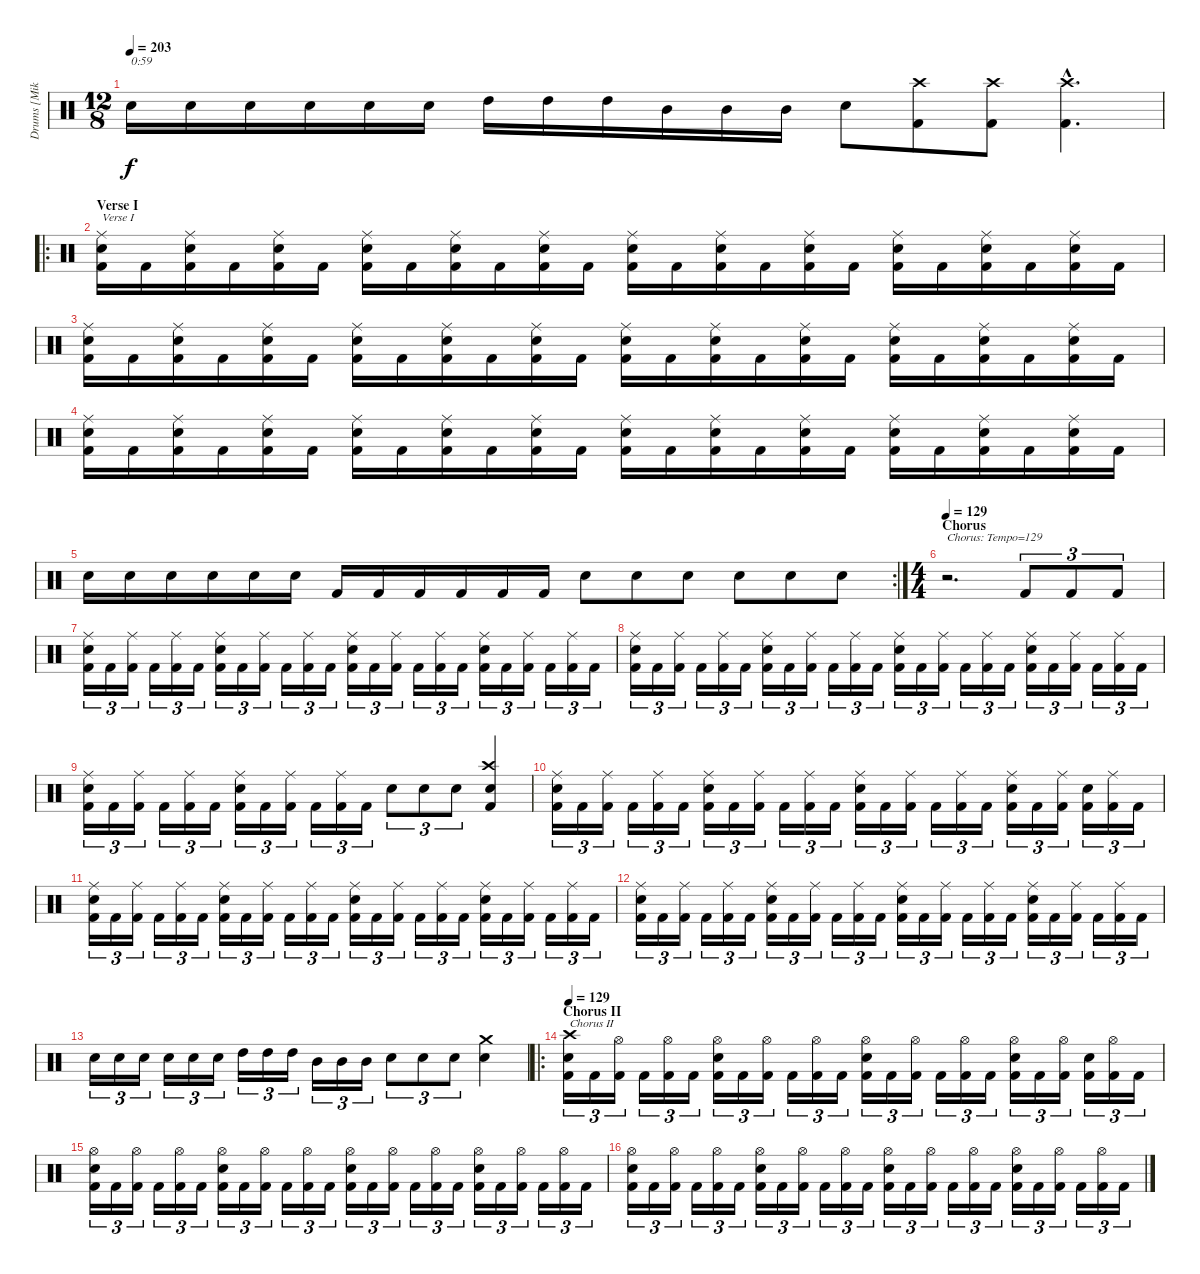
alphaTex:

\track ("Drums [Mike Smith]" "Drums [Mik") {instrument percussion}
\staff {score}
\articulation defaults
\ts (12 8)
\tempo 203
\clef neutral
\ks c "Electric Snare (hit)".16{txt "0:59" dy f} "Electric Snare (hit)".16 "Electric Snare (hit)".16 "Electric Snare (hit)".16 "Electric Snare (hit)".16 "Electric Snare (hit)".16 "High Tom (hit)".16 "High Tom (hit)".16 "High Tom (hit)".16 "Mid Tom (hit)".16 "Mid Tom (hit)".16 "Mid Tom (hit)".16 "Electric Snare (hit)".8
("Crash high (hit)" "Kick (hit) 2").8 ("Crash high (hit)" "Kick (hit) 2").8 ("Crash high (hit)"{hac} "Kick (hit) 2"{hac}).4{d} |
\ro
\section ("" "Verse I")
("Ride (middle)" "Electric Snare (hit)" "Kick (hit) 2").16{txt "Verse I"} "Kick (hit) 2".16 ("Ride (middle)" "Electric Snare (hit)" "Kick (hit) 2").16 "Kick (hit) 2".16 ("Ride (middle)" "Electric Snare (hit)" "Kick (hit) 2").16 "Kick (hit) 2".16 ("Ride (middle)" "Electric Snare (hit)" "Kick (hit) 2").16 "Kick (hit) 2".16 ("Ride (middle)" "Electric Snare (hit)" "Kick (hit) 2").16 "Kick (hit) 2".16 ("Ride (middle)" "Electric Snare (hit)" "Kick (hit) 2").16 "Kick (hit) 2".16 ("Ride (middle)" "Electric Snare (hit)" "Kick (hit) 2").16 "Kick (hit) 2".16 ("Ride (middle)" "Electric Snare (hit)" "Kick (hit) 2").16 "Kick (hit) 2".16 ("Ride (middle)" "Electric Snare (hit)" "Kick (hit) 2").16 "Kick (hit) 2".16 ("Ride (middle)" "Electric Snare (hit)" "Kick (hit) 2").16 "Kick (hit) 2".16 ("Ride (middle)" "Electric Snare (hit)" "Kick (hit) 2").16 "Kick (hit) 2".16 ("Ride (middle)" "Electric Snare (hit)" "Kick (hit) 2").16 "Kick (hit) 2".16 |
("Ride (middle)" "Electric Snare (hit)" "Kick (hit) 2").16 "Kick (hit) 2".16 ("Ride (middle)" "Electric Snare (hit)" "Kick (hit) 2").16 "Kick (hit) 2".16 ("Ride (middle)" "Electric Snare (hit)" "Kick (hit) 2").16 "Kick (hit) 2".16 ("Ride (middle)" "Electric Snare (hit)" "Kick (hit) 2").16 "Kick (hit) 2".16 ("Ride (middle)" "Electric Snare (hit)" "Kick (hit) 2").16 "Kick (hit) 2".16 ("Ride (middle)" "Electric Snare (hit)" "Kick (hit) 2").16 "Kick (hit) 2".16 ("Ride (middle)" "Electric Snare (hit)" "Kick (hit) 2").16 "Kick (hit) 2".16 ("Ride (middle)" "Electric Snare (hit)" "Kick (hit) 2").16 "Kick (hit) 2".16 ("Ride (middle)" "Electric Snare (hit)" "Kick (hit) 2").16 "Kick (hit) 2".16 ("Ride (middle)" "Electric Snare (hit)" "Kick (hit) 2").16 "Kick (hit) 2".16 ("Ride (middle)" "Electric Snare (hit)" "Kick (hit) 2").16 "Kick (hit) 2".16 ("Ride (middle)" "Electric Snare (hit)" "Kick (hit) 2").16 "Kick (hit) 2".16 |
("Ride (middle)" "Electric Snare (hit)" "Kick (hit) 2").16 "Kick (hit) 2".16 ("Ride (middle)" "Electric Snare (hit)" "Kick (hit) 2").16 "Kick (hit) 2".16 ("Ride (middle)" "Electric Snare (hit)" "Kick (hit) 2").16 "Kick (hit) 2".16 ("Ride (middle)" "Electric Snare (hit)" "Kick (hit) 2").16 "Kick (hit) 2".16 ("Ride (middle)" "Electric Snare (hit)" "Kick (hit) 2").16 "Kick (hit) 2".16 ("Ride (middle)" "Electric Snare (hit)" "Kick (hit) 2").16 "Kick (hit) 2".16 ("Ride (middle)" "Electric Snare (hit)" "Kick (hit) 2").16 "Kick (hit) 2".16 ("Ride (middle)" "Electric Snare (hit)" "Kick (hit) 2").16 "Kick (hit) 2".16 ("Ride (middle)" "Electric Snare (hit)" "Kick (hit) 2").16 "Kick (hit) 2".16 ("Ride (middle)" "Electric Snare (hit)" "Kick (hit) 2").16 "Kick (hit) 2".16 ("Ride (middle)" "Electric Snare (hit)" "Kick (hit) 2").16 "Kick (hit) 2".16 ("Ride (middle)" "Electric Snare (hit)" "Kick (hit) 2").16 "Kick (hit) 2".16 |
\rc 2 "Electric Snare (hit)".16 "Electric Snare (hit)".16 "Electric Snare (hit)".16 "Electric Snare (hit)".16 "Electric Snare (hit)".16 "Electric Snare (hit)".16 "Kick (hit) 2".16 "Kick (hit) 2".16 "Kick (hit) 2".16 "Kick (hit) 2".16 "Kick (hit) 2".16 "Kick (hit) 2".16 "Electric Snare (hit)".8 "Electric Snare (hit)".8 "Electric Snare (hit)".8 "Electric Snare (hit)".8 "Electric Snare (hit)".8 "Electric Snare (hit)".8
|
\ts (4 4)
\section ("" "Chorus")
\tempo 129
r.2{d txt "Chorus: Tempo=129"} "Kick (hit) 2".8{tu (3 2)} "Kick (hit) 2".8{tu (3 2)} "Kick (hit) 2".8{tu (3 2)} |
("Ride (middle)" "Electric Snare (hit)" "Kick (hit) 2").16{tu (3 2)} "Kick (hit) 2".16{tu (3 2)} ("Ride (middle)" "Kick (hit) 2").16{tu (3 2)} "Kick (hit) 2".16{tu (3 2)} ("Ride (middle)" "Kick (hit) 2").16{tu (3 2)} "Kick (hit) 2".16{tu (3 2)} ("Ride (middle)" "Electric Snare (hit)" "Kick (hit) 2").16{tu (3 2)} "Kick (hit) 2".16{tu (3 2)} ("Ride (middle)" "Kick (hit) 2").16{tu (3 2)} "Kick (hit) 2".16{tu (3 2)} ("Ride (middle)" "Kick (hit) 2").16{tu (3 2)} "Kick (hit) 2".16{tu (3 2)} ("Ride (middle)" "Electric Snare (hit)" "Kick (hit) 2").16{tu (3 2)} "Kick (hit) 2".16{tu (3 2)} ("Ride (middle)" "Kick (hit) 2").16{tu (3 2)} "Kick (hit) 2".16{tu (3 2)} ("Ride (middle)" "Kick (hit) 2").16{tu (3 2)} "Kick (hit) 2".16{tu (3 2)} ("Ride (middle)" "Electric Snare (hit)" "Kick (hit) 2").16{tu (3 2)} "Kick (hit) 2".16{tu (3 2)} ("Ride (middle)" "Kick (hit) 2").16{tu (3 2)} "Kick (hit) 2".16{tu (3 2)} ("Ride (middle)" "Kick (hit) 2").16{tu (3 2)} "Kick (hit) 2".16{tu (3 2)} |
("Ride (middle)" "Electric Snare (hit)" "Kick (hit) 2").16{tu (3 2)} "Kick (hit) 2".16{tu (3 2)} ("Ride (middle)" "Kick (hit) 2").16{tu (3 2)} "Kick (hit) 2".16{tu (3 2)} ("Ride (middle)" "Kick (hit) 2").16{tu (3 2)} "Kick (hit) 2".16{tu (3 2)} ("Ride (middle)" "Electric Snare (hit)" "Kick (hit) 2").16{tu (3 2)} "Kick (hit) 2".16{tu (3 2)} ("Ride (middle)" "Kick (hit) 2").16{tu (3 2)} "Kick (hit) 2".16{tu (3 2)} ("Ride (middle)" "Kick (hit) 2").16{tu (3 2)} "Kick (hit) 2".16{tu (3 2)} ("Ride (middle)" "Electric Snare (hit)" "Kick (hit) 2").16{tu (3 2)} "Kick (hit) 2".16{tu (3 2)} ("Ride (middle)" "Kick (hit) 2").16{tu (3 2)} "Kick (hit) 2".16{tu (3 2)} ("Ride (middle)" "Kick (hit) 2").16{tu (3 2)} "Kick (hit) 2".16{tu (3 2)} ("Ride (middle)" "Electric Snare (hit)" "Kick (hit) 2").16{tu (3 2)} "Kick (hit) 2".16{tu (3 2)} ("Ride (middle)" "Kick (hit) 2").16{tu (3 2)} "Kick (hit) 2".16{tu (3 2)} ("Ride (middle)" "Kick (hit) 2").16{tu (3 2)} "Kick (hit) 2".16{tu (3 2)} |
("Ride (middle)" "Electric Snare (hit)" "Kick (hit) 2").16{tu (3 2)} "Kick (hit) 2".16{tu (3 2)} ("Ride (middle)" "Kick (hit) 2").16{tu (3 2)} "Kick (hit) 2".16{tu (3 2)} ("Ride (middle)" "Kick (hit) 2").16{tu (3 2)} "Kick (hit) 2".16{tu (3 2)} ("Ride (middle)" "Electric Snare (hit)" "Kick (hit) 2").16{tu (3 2)} "Kick (hit) 2".16{tu (3 2)} ("Ride (middle)" "Kick (hit) 2").16{tu (3 2)} "Kick (hit) 2".16{tu (3 2)} ("Ride (middle)" "Kick (hit) 2").16{tu (3 2)} "Kick (hit) 2".16{tu (3 2)} "Electric Snare (hit)".8{tu (3 2)} "Electric Snare (hit)".8{tu (3 2)} "Electric Snare (hit)".8{tu (3 2)} ("Crash high (hit)" "Electric Snare (hit)" "Kick (hit) 2").4 |
("Ride (middle)" "Electric Snare (hit)" "Kick (hit) 2").16{tu (3 2)} "Kick (hit) 2".16{tu (3 2)} ("Ride (middle)" "Kick (hit) 2").16{tu (3 2)} "Kick (hit) 2".16{tu (3 2)} ("Ride (middle)" "Kick (hit) 2").16{tu (3 2)} "Kick (hit) 2".16{tu (3 2)} ("Ride (middle)" "Electric Snare (hit)" "Kick (hit) 2").16{tu (3 2)} "Kick (hit) 2".16{tu (3 2)} ("Ride (middle)" "Kick (hit) 2").16{tu (3 2)} "Kick (hit) 2".16{tu (3 2)} ("Ride (middle)" "Kick (hit) 2").16{tu (3 2)} "Kick (hit) 2".16{tu (3 2)} ("Ride (middle)" "Electric Snare (hit)" "Kick (hit) 2").16{tu (3 2)} "Kick (hit) 2".16{tu (3 2)} ("Ride (middle)" "Kick (hit) 2").16{tu (3 2)} "Kick (hit) 2".16{tu (3 2)} ("Ride (middle)" "Kick (hit) 2").16{tu (3 2)} "Kick (hit) 2".16{tu (3 2)} ("Ride (middle)" "Electric Snare (hit)" "Kick (hit) 2").16{tu (3 2)} "Kick (hit) 2".16{tu (3 2)} ("Ride (middle)" "Kick (hit) 2").16{tu (3 2)} ("Electric Snare (hit)" "Kick (hit) 2").16{tu (3 2)} ("Ride (middle)" "Kick (hit) 2").16{tu (3 2)} "Kick (hit) 2".16{tu (3 2)} |
("Ride (middle)" "Electric Snare (hit)" "Kick (hit) 2").16{tu (3 2)} "Kick (hit) 2".16{tu (3 2)} ("Ride (middle)" "Kick (hit) 2").16{tu (3 2)} "Kick (hit) 2".16{tu (3 2)} ("Ride (middle)" "Kick (hit) 2").16{tu (3 2)} "Kick (hit) 2".16{tu (3 2)} ("Ride (middle)" "Electric Snare (hit)" "Kick (hit) 2").16{tu (3 2)} "Kick (hit) 2".16{tu (3 2)} ("Ride (middle)" "Kick (hit) 2").16{tu (3 2)} "Kick (hit) 2".16{tu (3 2)} ("Ride (middle)" "Kick (hit) 2").16{tu (3 2)} "Kick (hit) 2".16{tu (3 2)} ("Ride (middle)" "Electric Snare (hit)" "Kick (hit) 2").16{tu (3 2)} "Kick (hit) 2".16{tu (3 2)} ("Ride (middle)" "Kick (hit) 2").16{tu (3 2)} "Kick (hit) 2".16{tu (3 2)} ("Ride (middle)" "Kick (hit) 2").16{tu (3 2)} "Kick (hit) 2".16{tu (3 2)} ("Ride (middle)" "Electric Snare (hit)" "Kick (hit) 2").16{tu (3 2)} "Kick (hit) 2".16{tu (3 2)} ("Ride (middle)" "Kick (hit) 2").16{tu (3 2)} "Kick (hit) 2".16{tu (3 2)} ("Ride (middle)" "Kick (hit) 2").16{tu (3 2)} "Kick (hit) 2".16{tu (3 2)} |
("Ride (middle)" "Electric Snare (hit)" "Kick (hit) 2").16{tu (3 2)} "Kick (hit) 2".16{tu (3 2)} ("Ride (middle)" "Kick (hit) 2").16{tu (3 2)} "Kick (hit) 2".16{tu (3 2)} ("Ride (middle)" "Kick (hit) 2").16{tu (3 2)} "Kick (hit) 2".16{tu (3 2)} ("Ride (middle)" "Electric Snare (hit)" "Kick (hit) 2").16{tu (3 2)} "Kick (hit) 2".16{tu (3 2)} ("Ride (middle)" "Kick (hit) 2").16{tu (3 2)} "Kick (hit) 2".16{tu (3 2)} ("Ride (middle)" "Kick (hit) 2").16{tu (3 2)} "Kick (hit) 2".16{tu (3 2)} ("Ride (middle)" "Electric Snare (hit)" "Kick (hit) 2").16{tu (3 2)} "Kick (hit) 2".16{tu (3 2)} ("Ride (middle)" "Kick (hit) 2").16{tu (3 2)} "Kick (hit) 2".16{tu (3 2)} ("Ride (middle)" "Kick (hit) 2").16{tu (3 2)} "Kick (hit) 2".16{tu (3 2)} ("Ride (middle)" "Electric Snare (hit)" "Kick (hit) 2").16{tu (3 2)} "Kick (hit) 2".16{tu (3 2)} ("Ride (middle)" "Kick (hit) 2").16{tu (3 2)} "Kick (hit) 2".16{tu (3 2)} ("Ride (middle)" "Kick (hit) 2").16{tu (3 2)} "Kick (hit) 2".16{tu (3 2)} |
"Electric Snare (hit)".16{tu (3 2)} "Electric Snare (hit)".16{tu (3 2)} "Electric Snare (hit)".16{tu (3 2)} "Electric Snare (hit)".16{tu (3 2)} "Electric Snare (hit)".16{tu (3 2)} "Electric Snare (hit)".16{tu (3 2)} "High Tom (hit)".16{tu (3 2)} "High Tom (hit)".16{tu (3 2)} "High Tom (hit)".16{tu (3 2)} "Mid Tom (hit)".16{tu (3 2)} "Mid Tom (hit)".16{tu (3 2)} "Mid Tom (hit)".16{tu (3 2)} "Electric Snare (hit)".8{tu (3 2)} "Electric Snare (hit)".8{tu (3 2)} "Electric Snare (hit)".8{tu (3 2)} ("Crash medium (hit)" "Electric Snare (hit)").4 |
\ro
\section ("" "Chorus II")
\tempo 129
("Crash high (hit)" "Electric Snare (hit)" "Kick (hit) 2").16{tu (3 2) txt "Chorus II"} "Kick (hit) 2".16{tu (3 2)} ("Hi-Hat (open)" "Kick (hit) 2").16{tu (3 2)} "Kick (hit) 2".16{tu (3 2)} ("Hi-Hat (open)" "Kick (hit) 2").16{tu (3 2)} "Kick (hit) 2".16{tu (3 2)} ("Hi-Hat (open)" "Electric Snare (hit)" "Kick (hit) 2").16{tu (3 2)} "Kick (hit) 2".16{tu (3 2)} ("Hi-Hat (open)" "Kick (hit) 2").16{tu (3 2)} "Kick (hit) 2".16{tu (3 2)} ("Hi-Hat (open)" "Kick (hit) 2").16{tu (3 2)} "Kick (hit) 2".16{tu (3 2)} ("Hi-Hat (open)" "Electric Snare (hit)" "Kick (hit) 2").16{tu (3 2)} "Kick (hit) 2".16{tu (3 2)} ("Hi-Hat (open)" "Kick (hit) 2").16{tu (3 2)} "Kick (hit) 2".16{tu (3 2)} ("Hi-Hat (open)" "Kick (hit) 2").16{tu (3 2)} "Kick (hit) 2".16{tu (3 2)} ("Hi-Hat (open)" "Electric Snare (hit)" "Kick (hit) 2").16{tu (3 2)} "Kick (hit) 2".16{tu (3 2)} ("Hi-Hat (open)" "Kick (hit) 2").16{tu (3 2)} ("Electric Snare (hit)" "Kick (hit) 2").16{tu (3 2)} ("Hi-Hat (open)" "Kick (hit) 2").16{tu (3 2)} "Kick (hit) 2".16{tu (3 2)} |
("Hi-Hat (open)" "Electric Snare (hit)" "Kick (hit) 2").16{tu (3 2)} "Kick (hit) 2".16{tu (3 2)} ("Hi-Hat (open)" "Kick (hit) 2").16{tu (3 2)} "Kick (hit) 2".16{tu (3 2)} ("Hi-Hat (open)" "Kick (hit) 2").16{tu (3 2)} "Kick (hit) 2".16{tu (3 2)} ("Hi-Hat (open)" "Electric Snare (hit)" "Kick (hit) 2").16{tu (3 2)} "Kick (hit) 2".16{tu (3 2)} ("Hi-Hat (open)" "Kick (hit) 2").16{tu (3 2)} "Kick (hit) 2".16{tu (3 2)} ("Hi-Hat (open)" "Kick (hit) 2").16{tu (3 2)} "Kick (hit) 2".16{tu (3 2)} ("Hi-Hat (open)" "Electric Snare (hit)" "Kick (hit) 2").16{tu (3 2)} "Kick (hit) 2".16{tu (3 2)} ("Hi-Hat (open)" "Kick (hit) 2").16{tu (3 2)} "Kick (hit) 2".16{tu (3 2)} ("Hi-Hat (open)" "Kick (hit) 2").16{tu (3 2)} "Kick (hit) 2".16{tu (3 2)} ("Hi-Hat (open)" "Electric Snare (hit)" "Kick (hit) 2").16{tu (3 2)} "Kick (hit) 2".16{tu (3 2)} ("Hi-Hat (open)" "Kick (hit) 2").16{tu (3 2)} "Kick (hit) 2".16{tu (3 2)} ("Hi-Hat (open)" "Kick (hit) 2").16{tu (3 2)} "Kick (hit) 2".16{tu (3 2)} |
("Hi-Hat (open)" "Electric Snare (hit)" "Kick (hit) 2").16{tu (3 2)} "Kick (hit) 2".16{tu (3 2)} ("Hi-Hat (open)" "Kick (hit) 2").16{tu (3 2)} "Kick (hit) 2".16{tu (3 2)} ("Hi-Hat (open)" "Kick (hit) 2").16{tu (3 2)} "Kick (hit) 2".16{tu (3 2)} ("Hi-Hat (open)" "Electric Snare (hit)" "Kick (hit) 2").16{tu (3 2)} "Kick (hit) 2".16{tu (3 2)} ("Hi-Hat (open)" "Kick (hit) 2").16{tu (3 2)} "Kick (hit) 2".16{tu (3 2)} ("Hi-Hat (open)" "Kick (hit) 2").16{tu (3 2)} "Kick (hit) 2".16{tu (3 2)} ("Hi-Hat (open)" "Electric Snare (hit)" "Kick (hit) 2").16{tu (3 2)} "Kick (hit) 2".16{tu (3 2)} ("Hi-Hat (open)" "Kick (hit) 2").16{tu (3 2)} "Kick (hit) 2".16{tu (3 2)} ("Hi-Hat (open)" "Kick (hit) 2").16{tu (3 2)} "Kick (hit) 2".16{tu (3 2)} ("Hi-Hat (open)" "Electric Snare (hit)" "Kick (hit) 2").16{tu (3 2)} "Kick (hit) 2".16{tu (3 2)} ("Hi-Hat (open)" "Kick (hit) 2").16{tu (3 2)} "Kick (hit) 2".16{tu (3 2)} ("Hi-Hat (open)" "Kick (hit) 2").16{tu (3 2)} "Kick (hit) 2".16{tu (3 2)}
